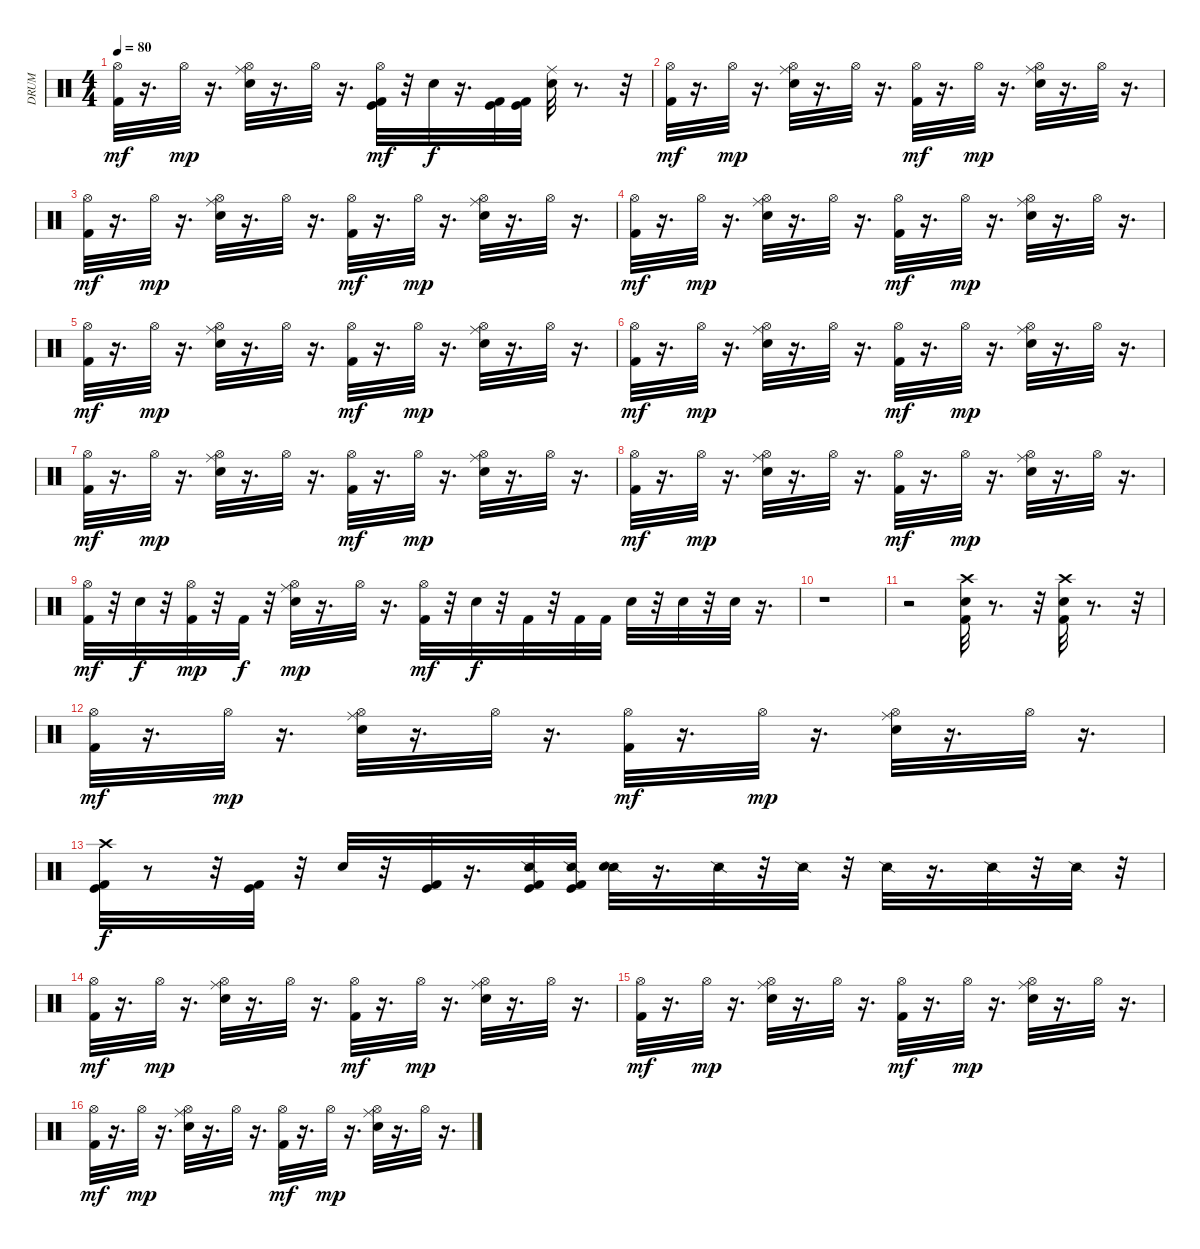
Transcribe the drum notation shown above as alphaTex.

\track ("DRUM" "DRUM") {instrument percussion}
\staff {score}
\articulation defaults
\ts (4 4)
\tempo 80
\clef neutral
\ks c
("Hi-Hat (open)" "Kick (hit) 2").32{dy mf} r.16{d} "Hi-Hat (open)".32{dy mp} r.16{d} ("Ride (middle)" "Hi-Hat (open)" "Electric Snare (hit)").32 r.16{d} "Hi-Hat (open)".32 r.16{d} ("Kick (hit)" "Hi-Hat (open)" "Kick (hit) 2").32{dy mf} r.32 "Electric Snare (hit)".32{dy f} r.16{d} ("Kick (hit)" "Kick (hit) 2").32 ("Kick (hit)" "Kick (hit) 2").32 ("Ride (middle)" "Electric Snare (hit)").32 r.8{d} r.32 |
("Hi-Hat (open)" "Kick (hit) 2").32{dy mf} r.16{d} "Hi-Hat (open)".32{dy mp} r.16{d} ("Electric Snare (hit)" "Hi-Hat (open)" "Ride (middle)").32 r.16{d} "Hi-Hat (open)".32 r.16{d} ("Hi-Hat (open)" "Kick (hit) 2").32{dy mf} r.16{d} "Hi-Hat (open)".32{dy mp} r.16{d} ("Electric Snare (hit)" "Ride (middle)" "Hi-Hat (open)").32 r.16{d} "Hi-Hat (open)".32 r.16{d} |
("Kick (hit) 2" "Hi-Hat (open)").32{dy mf} r.16{d} "Hi-Hat (open)".32{dy mp} r.16{d} ("Hi-Hat (open)" "Electric Snare (hit)" "Ride (middle)").32 r.16{d} "Hi-Hat (open)".32 r.16{d} ("Kick (hit) 2" "Hi-Hat (open)").32{dy mf} r.16{d} "Hi-Hat (open)".32{dy mp} r.16{d} ("Ride (middle)" "Electric Snare (hit)" "Hi-Hat (open)").32 r.16{d} "Hi-Hat (open)".32 r.16{d} |
("Hi-Hat (open)" "Kick (hit) 2").32{dy mf} r.16{d} "Hi-Hat (open)".32{dy mp} r.16{d} ("Hi-Hat (open)" "Electric Snare (hit)" "Ride (middle)").32 r.16{d} "Hi-Hat (open)".32 r.16{d} ("Kick (hit) 2" "Hi-Hat (open)").32{dy mf} r.16{d} "Hi-Hat (open)".32{dy mp} r.16{d} ("Hi-Hat (open)" "Electric Snare (hit)" "Ride (middle)").32 r.16{d} "Hi-Hat (open)".32 r.16{d} |
("Kick (hit) 2" "Hi-Hat (open)").32{dy mf} r.16{d} "Hi-Hat (open)".32{dy mp} r.16{d} ("Ride (middle)" "Electric Snare (hit)" "Hi-Hat (open)").32 r.16{d} "Hi-Hat (open)".32 r.16{d} ("Kick (hit) 2" "Hi-Hat (open)").32{dy mf} r.16{d} "Hi-Hat (open)".32{dy mp} r.16{d} ("Electric Snare (hit)" "Hi-Hat (open)" "Ride (middle)").32 r.16{d} "Hi-Hat (open)".32 r.16{d} |
("Kick (hit) 2" "Hi-Hat (open)").32{dy mf} r.16{d} "Hi-Hat (open)".32{dy mp} r.16{d} ("Electric Snare (hit)" "Ride (middle)" "Hi-Hat (open)").32 r.16{d} "Hi-Hat (open)".32 r.16{d} ("Kick (hit) 2" "Hi-Hat (open)").32{dy mf} r.16{d} "Hi-Hat (open)".32{dy mp} r.16{d} ("Electric Snare (hit)" "Ride (middle)" "Hi-Hat (open)").32 r.16{d} "Hi-Hat (open)".32 r.16{d} |
("Kick (hit) 2" "Hi-Hat (open)").32{dy mf} r.16{d} "Hi-Hat (open)".32{dy mp} r.16{d} ("Hi-Hat (open)" "Electric Snare (hit)" "Ride (middle)").32 r.16{d} "Hi-Hat (open)".32 r.16{d} ("Hi-Hat (open)" "Kick (hit) 2").32{dy mf} r.16{d} "Hi-Hat (open)".32{dy mp} r.16{d} ("Hi-Hat (open)" "Ride (middle)" "Electric Snare (hit)").32 r.16{d} "Hi-Hat (open)".32 r.16{d} |
("Hi-Hat (open)" "Kick (hit) 2").32{dy mf} r.16{d} "Hi-Hat (open)".32{dy mp} r.16{d} ("Hi-Hat (open)" "Electric Snare (hit)" "Ride (middle)").32 r.16{d} "Hi-Hat (open)".32 r.16{d} ("Kick (hit) 2" "Hi-Hat (open)").32{dy mf} r.16{d} "Hi-Hat (open)".32{dy mp} r.16{d} ("Electric Snare (hit)" "Ride (middle)" "Hi-Hat (open)").32 r.16{d} "Hi-Hat (open)".32 r.16{d} |
("Hi-Hat (open)" "Kick (hit) 2").32{dy mf} r.32 "Electric Snare (hit)".32{dy f} r.32 ("Hi-Hat (open)" "Kick (hit) 2").32{dy mp} r.32 "Kick (hit) 2".32{dy f} r.32 ("Hi-Hat (open)" "Ride (middle)" "Electric Snare (hit)").32{dy mp} r.16{d} "Hi-Hat (open)".32 r.16{d} ("Kick (hit) 2" "Hi-Hat (open)").32{dy mf} r.32 "Electric Snare (hit)".32{dy f} r.32 "Kick (hit) 2".32 r.32 "Kick (hit) 2".32 "Kick (hit) 2".32 "Electric Snare (hit)".32 r.32 "Electric Snare (hit)".32 r.32 "Electric Snare (hit)".32 r.16{d} |
r.1 |
r.2 ("Kick (hit) 2" "Electric Snare (hit)" "Crash high (hit)").32 r.8{d} r.32 ("Kick (hit) 2" "Electric Snare (hit)" "Crash high (hit)").32 r.8{d} r.32 |
("Hi-Hat (open)" "Kick (hit) 2").32{dy mf} r.16{d} "Hi-Hat (open)".32{dy mp} r.16{d} ("Ride (middle)" "Hi-Hat (open)" "Electric Snare (hit)").32 r.16{d} "Hi-Hat (open)".32 r.16{d} ("Hi-Hat (open)" "Kick (hit) 2").32{dy mf} r.16{d} "Hi-Hat (open)".32{dy mp} r.16{d} ("Electric Snare (hit)" "Ride (middle)" "Hi-Hat (open)").32 r.16{d} "Hi-Hat (open)".32 r.16{d} |
("Kick (hit) 2" "Crash high (hit)" "Kick (hit)").32{dy f} r.8 r.32 ("Kick (hit) 2" "Kick (hit)").32 r.32 "Electric Snare (hit)".32 r.32 ("Kick (hit) 2" "Kick (hit)").32 r.16{d} ("Snare (side stick) 2" "Kick (hit) 2" "Kick (hit)").32 ("Kick (hit) 2" "Kick (hit)" "Snare (side stick) 2").32 ("Snare (side stick) 2" "Electric Snare (hit)").32 r.16{d} "Snare (side stick) 2".32 r.32 "Snare (side stick) 2".32 r.32 "Snare (side stick) 2".32 r.16{d} "Snare (side stick) 2".32 r.32 "Snare (side stick) 2".32 r.32 |
("Kick (hit) 2" "Hi-Hat (open)").32{dy mf} r.16{d} "Hi-Hat (open)".32{dy mp} r.16{d} ("Hi-Hat (open)" "Ride (middle)" "Electric Snare (hit)").32 r.16{d} "Hi-Hat (open)".32 r.16{d} ("Kick (hit) 2" "Hi-Hat (open)").32{dy mf} r.16{d} "Hi-Hat (open)".32{dy mp} r.16{d} ("Hi-Hat (open)" "Electric Snare (hit)" "Ride (middle)").32 r.16{d} "Hi-Hat (open)".32 r.16{d} |
("Hi-Hat (open)" "Kick (hit) 2").32{dy mf} r.16{d} "Hi-Hat (open)".32{dy mp} r.16{d} ("Ride (middle)" "Hi-Hat (open)" "Electric Snare (hit)").32 r.16{d} "Hi-Hat (open)".32 r.16{d} ("Hi-Hat (open)" "Kick (hit) 2").32{dy mf} r.16{d} "Hi-Hat (open)".32{dy mp} r.16{d} ("Electric Snare (hit)" "Ride (middle)" "Hi-Hat (open)").32 r.16{d} "Hi-Hat (open)".32 r.16{d} |
("Hi-Hat (open)" "Kick (hit) 2").32{dy mf} r.16{d} "Hi-Hat (open)".32{dy mp} r.16{d} ("Ride (middle)" "Hi-Hat (open)" "Electric Snare (hit)").32 r.16{d} "Hi-Hat (open)".32 r.16{d} ("Hi-Hat (open)" "Kick (hit) 2").32{dy mf} r.16{d} "Hi-Hat (open)".32{dy mp} r.16{d} ("Electric Snare (hit)" "Ride (middle)" "Hi-Hat (open)").32 r.16{d} "Hi-Hat (open)".32 r.16{d}
